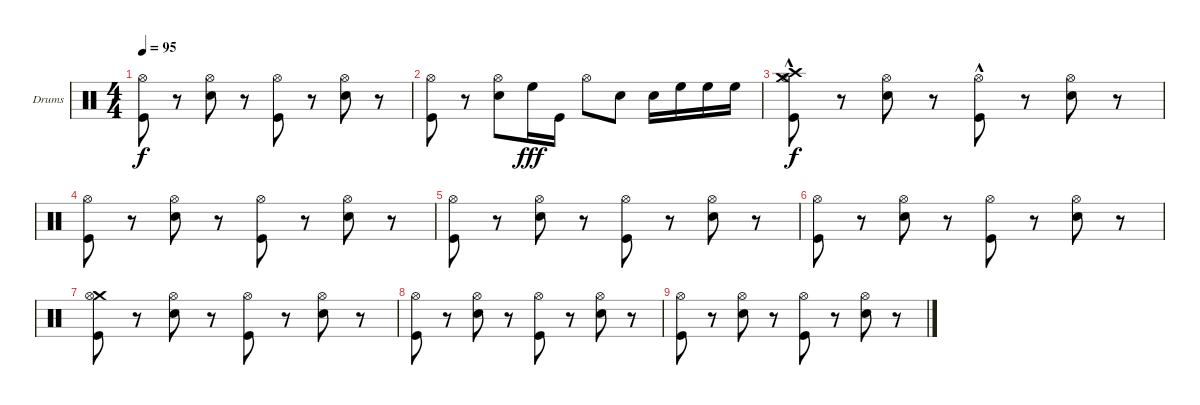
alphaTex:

\bracketExtendMode groupsimilarinstruments
\firstSystemTrackNameOrientation horizontal
\otherSystemsTrackNameOrientation horizontal
\track ("Drumkit" "Drums") {solo instrument percussion}
\staff {score}
\articulation defaults
\ts (4 4)
\tempo 95
\clef neutral
\scale
0.5
\ks c
("Hi-Hat (open)" "Kick (hit)").8{dy f} r.8 ("Hi-Hat (open)" "Snare (hit) 2").8 r.8 ("Hi-Hat (open)" "Kick (hit)").8 r.8 ("Hi-Hat (open)" "Snare (hit) 2").8 r.8 |
\scale
0.5 ("Hi-Hat (open)" "Kick (hit)").8 r.8 ("Hi-Hat (open)" "Snare (hit) 2").8 "High Floor Tom (hit)".16{dy fff} "Kick (hit)".16 "Hi-Hat (open)".8 "Snare (hit) 2".8 "Snare (hit) 2".16 "High Floor Tom (hit)".16 "High Floor Tom (hit)".16 "High Floor Tom (hit)".16 |
\scale
0.5 ("Crash medium (hit)" "Crash high (hit)" "Hi-Hat (open)" "Kick (hit)"{hac}).8{dy f} r.8 ("Hi-Hat (open)" "Snare (hit) 2").8 r.8 ("Hi-Hat (open)" "Kick (hit)"{hac}).8 r.8 ("Hi-Hat (open)" "Snare (hit) 2").8 r.8 |
\scale
0.5 ("Hi-Hat (open)" "Kick (hit)").8 r.8 ("Hi-Hat (open)" "Snare (hit) 2").8 r.8 ("Hi-Hat (open)" "Kick (hit)").8 r.8 ("Hi-Hat (open)" "Snare (hit) 2").8 r.8 |
\scale
0.5 ("Hi-Hat (open)" "Kick (hit)").8 r.8 ("Hi-Hat (open)" "Snare (hit) 2").8 r.8 ("Hi-Hat (open)" "Kick (hit)").8 r.8 ("Hi-Hat (open)" "Snare (hit) 2").8 r.8 |
\scale
0.5 ("Hi-Hat (open)" "Kick (hit)").8 r.8 ("Hi-Hat (open)" "Snare (hit) 2").8 r.8 ("Hi-Hat (open)" "Kick (hit)").8 r.8 ("Hi-Hat (open)" "Snare (hit) 2").8 r.8 |
\scale
0.5 ("Crash medium (hit)" "Hi-Hat (open)" "Kick (hit)").8 r.8 ("Hi-Hat (open)" "Snare (hit) 2").8 r.8 ("Hi-Hat (open)" "Kick (hit)").8 r.8 ("Hi-Hat (open)" "Snare (hit) 2").8 r.8 |
\scale
0.5 ("Hi-Hat (open)" "Kick (hit)").8 r.8 ("Hi-Hat (open)" "Snare (hit) 2").8 r.8 ("Hi-Hat (open)" "Kick (hit)").8 r.8 ("Hi-Hat (open)" "Snare (hit) 2").8 r.8 |
\scale
0.5 ("Hi-Hat (open)" "Kick (hit)").8 r.8 ("Hi-Hat (open)" "Snare (hit) 2").8 r.8 ("Hi-Hat (open)" "Kick (hit)").8 r.8 ("Hi-Hat (open)" "Snare (hit) 2").8 r.8
